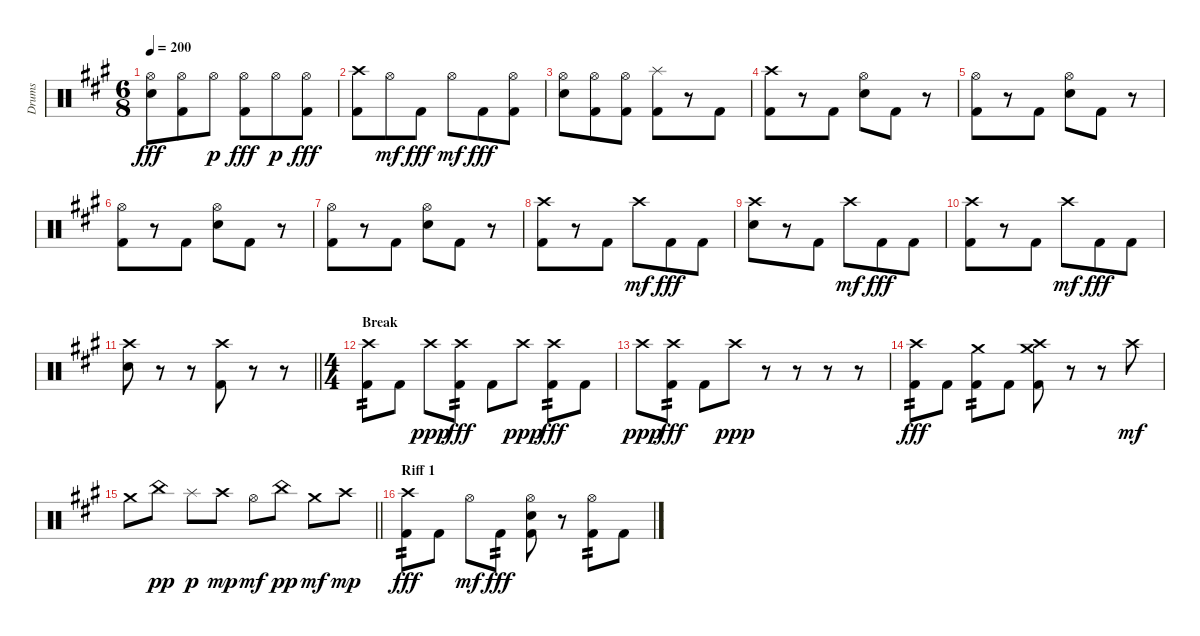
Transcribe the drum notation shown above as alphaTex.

\track ("Drums" "Drums") {instrument percussion}
\staff {score}
\articulation defaults
\ts (6 8)
\tempo 200
\clef neutral
\ks f#minor
("Hi-Hat (open)" "Electric Snare (hit)").8{dy fff} ("Hi-Hat (open)" "Kick (hit) 2").8 "Hi-Hat (open)".8{dy p} ("Hi-Hat (open)" "Kick (hit) 2").8{dy fff} "Hi-Hat (open)".8{dy p} ("Hi-Hat (open)" "Kick (hit) 2").8{dy fff} |
("Crash high (hit)" "Kick (hit) 2").8 "Hi-Hat (open)".8{dy mf} "Kick (hit) 2".8{dy fff} "Hi-Hat (open)".8{dy mf} "Kick (hit) 2".8{dy fff} ("Hi-Hat (open)" "Kick (hit) 2").8 |
("Hi-Hat (open)" "Electric Snare (hit)").8 ("Hi-Hat (open)" "Kick (hit) 2").8 ("Hi-Hat (open)" "Kick (hit) 2").8 ("Splash (hit)" "Kick (hit) 2").8 r.8 "Kick (hit) 2".8 |
("Crash high (hit)" "Kick (hit) 2").8 r.8 "Kick (hit) 2".8 ("Hi-Hat (open)" "Electric Snare (hit)").8 "Kick (hit) 2".8 r.8 |
("Hi-Hat (open)" "Kick (hit) 2").8 r.8 "Kick (hit) 2".8 ("Hi-Hat (open)" "Electric Snare (hit)").8 "Kick (hit) 2".8 r.8 |
("Hi-Hat (open)" "Kick (hit) 2").8 r.8 "Kick (hit) 2".8 ("Hi-Hat (open)" "Electric Snare (hit)").8 "Kick (hit) 2".8 r.8 |
("Hi-Hat (open)" "Kick (hit) 2").8 r.8 "Kick (hit) 2".8 ("Hi-Hat (open)" "Electric Snare (hit)").8 "Kick (hit) 2".8 r.8 |
("Crash high (hit)" "Kick (hit) 2").8 r.8 "Kick (hit) 2".8 "Crash high (hit)".8{dy mf} "Kick (hit) 2".8{dy fff} "Kick (hit) 2".8 |
("Crash high (hit)" "Electric Snare (hit)").8 r.8 "Kick (hit) 2".8 "Crash high (hit)".8{dy mf} "Kick (hit) 2".8{dy fff} "Kick (hit) 2".8 |
("Crash high (hit)" "Kick (hit) 2").8 r.8 "Kick (hit) 2".8 "Crash high (hit)".8{dy mf} "Kick (hit) 2".8{dy fff} "Kick (hit) 2".8 |
\barLineRight lightlight
("Crash high (hit)" "Electric Snare (hit)").8 r.8 r.8 ("Crash high (hit)" "Kick (hit) 2").8 r.8 r.8 |
\ts (4 4)
\section ("" "Break")
("Crash high (hit)" "Kick (hit) 2").8{tp 2} "Kick (hit) 2".8 "Crash high (hit)".8{dy ppp} ("Crash high (hit)" "Kick (hit) 2").8{tp 2 dy fff} "Kick (hit) 2".8 "Crash high (hit)".8{dy ppp} ("Crash high (hit)" "Kick (hit) 2").8{tp 2 dy fff} "Kick (hit) 2".8 |
"Crash high (hit)".8{dy ppp} ("Crash high (hit)" "Kick (hit) 2").8{tp 2 dy fff} "Kick (hit) 2".8 "Crash high (hit)".8{dy ppp} r.8 r.8 r.8 r.8 |
("Crash high (hit)" "Kick (hit) 2").8{tp 2 dy fff} "Kick (hit) 2".8 ("Crash medium (hit)" "Kick (hit) 2").8{tp 2} "Kick (hit) 2".8 ("Crash high (hit)" "Crash medium (hit)" "Kick (hit) 2").8 r.8 r.8 "Crash high (hit)".8{dy mf} |
\barLineRight lightlight "Crash medium (hit)".8 "China (hit)".8{dy pp} "Splash (hit)".8{dy p} "Crash high (hit)".8{dy mp} "Hi-Hat (open)".8{dy mf} "China (hit)".8{dy pp} "Crash medium (hit)".8{dy mf} "Crash high (hit)".8{dy mp}
|
\section ("" "Riff 1")
("Crash high (hit)" "Kick (hit) 2").8{tp 2 dy fff} "Kick (hit) 2".8 "Hi-Hat (open)".8{dy mf} "Kick (hit) 2".8{tp 2 dy fff} ("Hi-Hat (open)" "Electric Snare (hit)" "Kick (hit) 2").8 r.8 ("Hi-Hat (open)" "Kick (hit) 2").8{tp 2} "Kick (hit) 2".8
